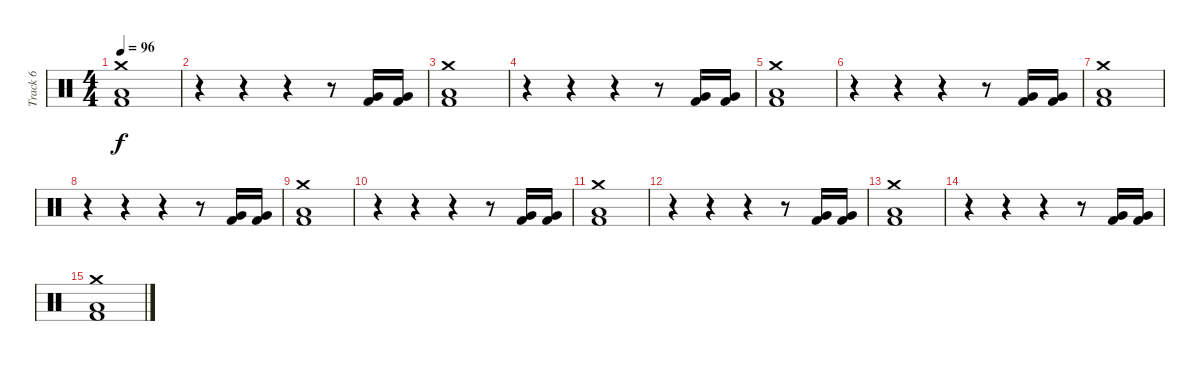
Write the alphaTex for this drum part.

\track ("Track 6" "Track 6") {instrument percussion}
\staff {score}
\articulation defaults
\ts (4 4)
\tempo 96
\clef neutral
\ks c
("Crash medium (hit)" "Low Floor Tom (hit)" "Kick (hit) 2").1{dy f} |
r.4 r.4 r.4 r.8 ("Very Low Tom (hit)" "Kick (hit) 2").16 ("Very Low Tom (hit)" "Kick (hit) 2").16 |
("Crash medium (hit)" "Low Floor Tom (hit)" "Kick (hit) 2").1 |
r.4 r.4 r.4 r.8 ("Very Low Tom (hit)" "Kick (hit) 2").16 ("Very Low Tom (hit)" "Kick (hit) 2").16 |
("Crash medium (hit)" "Low Floor Tom (hit)" "Kick (hit) 2").1 |
r.4 r.4 r.4 r.8 ("Very Low Tom (hit)" "Kick (hit) 2").16 ("Very Low Tom (hit)" "Kick (hit) 2").16 |
("Crash medium (hit)" "Low Floor Tom (hit)" "Kick (hit) 2").1 |
r.4 r.4 r.4 r.8 ("Very Low Tom (hit)" "Kick (hit) 2").16 ("Very Low Tom (hit)" "Kick (hit) 2").16 |
("Crash medium (hit)" "Low Floor Tom (hit)" "Kick (hit) 2").1 |
r.4 r.4 r.4 r.8 ("Very Low Tom (hit)" "Kick (hit) 2").16 ("Very Low Tom (hit)" "Kick (hit) 2").16 |
("Crash medium (hit)" "Low Floor Tom (hit)" "Kick (hit) 2").1 |
r.4 r.4 r.4 r.8 ("Very Low Tom (hit)" "Kick (hit) 2").16 ("Very Low Tom (hit)" "Kick (hit) 2").16 |
("Crash medium (hit)" "Low Floor Tom (hit)" "Kick (hit) 2").1 |
r.4 r.4 r.4 r.8 ("Very Low Tom (hit)" "Kick (hit) 2").16 ("Very Low Tom (hit)" "Kick (hit) 2").16 |
("Crash medium (hit)" "Low Floor Tom (hit)" "Kick (hit) 2").1
